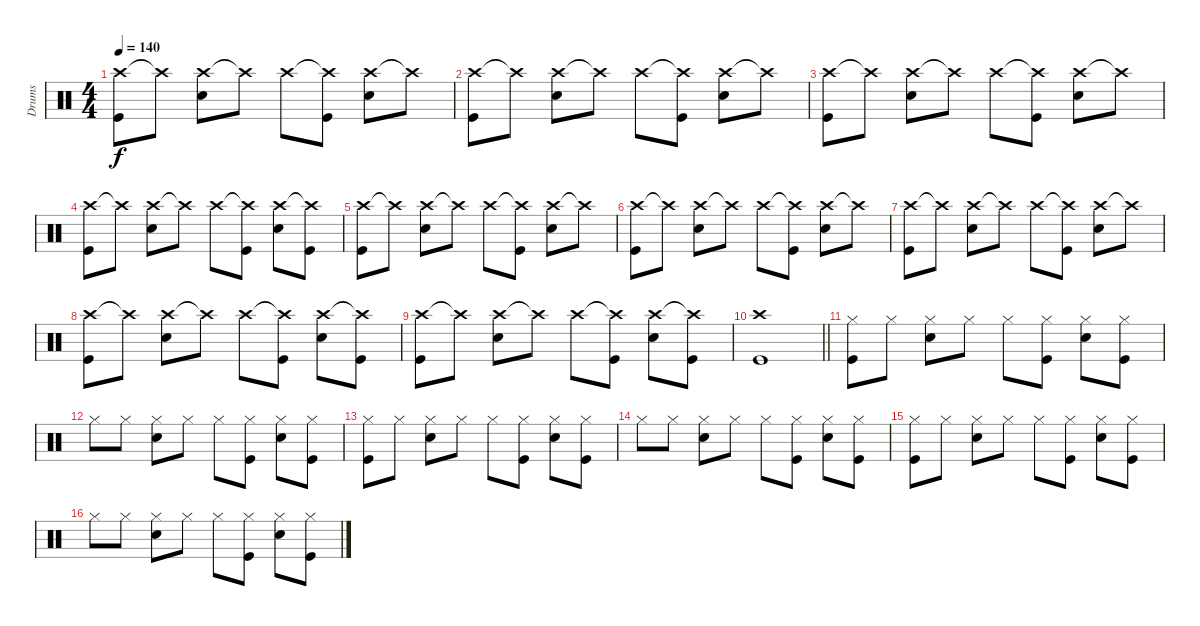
\track ("Drums" "Drums") {instrument percussion}
\staff {score}
\articulation defaults
\ts (4 4)
\tempo 140
\clef neutral
\ks c
("Crash high (hit)" "Kick (hit)").8{dy f} "Crash high (hit)"{t}.8 ("Crash high (hit)" "Snare (hit) 2").8 "Crash high (hit)"{t}.8 "Crash high (hit)".8 ("Crash high (hit)"{t} "Kick (hit)").8 ("Crash high (hit)" "Snare (hit) 2").8 "Crash high (hit)"{t}.8 |
("Crash high (hit)" "Kick (hit)").8 "Crash high (hit)"{t}.8 ("Crash high (hit)" "Snare (hit) 2").8 "Crash high (hit)"{t}.8 "Crash high (hit)".8 ("Crash high (hit)"{t} "Kick (hit)").8 ("Crash high (hit)" "Snare (hit) 2").8 "Crash high (hit)"{t}.8 |
("Crash high (hit)" "Kick (hit)").8 "Crash high (hit)"{t}.8 ("Crash high (hit)" "Snare (hit) 2").8 "Crash high (hit)"{t}.8 "Crash high (hit)".8 ("Crash high (hit)"{t} "Kick (hit)").8 ("Crash high (hit)" "Snare (hit) 2").8 "Crash high (hit)"{t}.8 |
("Crash high (hit)" "Kick (hit)").8 "Crash high (hit)"{t}.8 ("Crash high (hit)" "Snare (hit) 2").8 "Crash high (hit)"{t}.8 "Crash high (hit)".8 ("Crash high (hit)"{t} "Kick (hit)").8 ("Crash high (hit)" "Snare (hit) 2").8 ("Crash high (hit)"{t} "Kick (hit)").8 |
("Crash high (hit)" "Kick (hit)").8 "Crash high (hit)"{t}.8 ("Crash high (hit)" "Snare (hit) 2").8 "Crash high (hit)"{t}.8 "Crash high (hit)".8 ("Crash high (hit)"{t} "Kick (hit)").8 ("Crash high (hit)" "Snare (hit) 2").8 "Crash high (hit)"{t}.8 |
("Crash high (hit)" "Kick (hit)").8 "Crash high (hit)"{t}.8 ("Crash high (hit)" "Snare (hit) 2").8 "Crash high (hit)"{t}.8 "Crash high (hit)".8 ("Crash high (hit)"{t} "Kick (hit)").8 ("Crash high (hit)" "Snare (hit) 2").8 "Crash high (hit)"{t}.8 |
("Crash high (hit)" "Kick (hit)").8 "Crash high (hit)"{t}.8 ("Crash high (hit)" "Snare (hit) 2").8 "Crash high (hit)"{t}.8 "Crash high (hit)".8 ("Crash high (hit)"{t} "Kick (hit)").8 ("Crash high (hit)" "Snare (hit) 2").8 "Crash high (hit)"{t}.8 |
("Crash high (hit)" "Kick (hit)").8 "Crash high (hit)"{t}.8 ("Crash high (hit)" "Snare (hit) 2").8 "Crash high (hit)"{t}.8 "Crash high (hit)".8 ("Crash high (hit)"{t} "Kick (hit)").8 ("Crash high (hit)" "Snare (hit) 2").8 ("Crash high (hit)"{t} "Kick (hit)").8 |
("Crash high (hit)" "Kick (hit)").8 "Crash high (hit)"{t}.8 ("Crash high (hit)" "Snare (hit) 2").8 "Crash high (hit)"{t}.8 "Crash high (hit)".8 ("Crash high (hit)"{t} "Kick (hit)").8 ("Crash high (hit)" "Snare (hit) 2").8 ("Crash high (hit)"{t} "Kick (hit)").8 |
\barLineRight lightlight
("Crash high (hit)" "Kick (hit)").1 |
("Hi-Hat (closed)" "Kick (hit)").8 "Hi-Hat (closed)".8 ("Hi-Hat (closed)" "Electric Snare (hit)").8 "Hi-Hat (closed)".8 "Hi-Hat (closed)".8 ("Hi-Hat (closed)" "Kick (hit)").8 ("Hi-Hat (closed)" "Electric Snare (hit)").8 ("Hi-Hat (closed)" "Kick (hit)").8 |
"Hi-Hat (closed)".8 "Hi-Hat (closed)".8 ("Hi-Hat (closed)" "Electric Snare (hit)").8 "Hi-Hat (closed)".8 "Hi-Hat (closed)".8 ("Hi-Hat (closed)" "Kick (hit)").8 ("Hi-Hat (closed)" "Electric Snare (hit)").8 ("Hi-Hat (closed)" "Kick (hit)").8 |
("Hi-Hat (closed)" "Kick (hit)").8 "Hi-Hat (closed)".8 ("Hi-Hat (closed)" "Electric Snare (hit)").8 "Hi-Hat (closed)".8 "Hi-Hat (closed)".8 ("Hi-Hat (closed)" "Kick (hit)").8 ("Hi-Hat (closed)" "Electric Snare (hit)").8 ("Hi-Hat (closed)" "Kick (hit)").8 |
"Hi-Hat (closed)".8 "Hi-Hat (closed)".8 ("Hi-Hat (closed)" "Electric Snare (hit)").8 "Hi-Hat (closed)".8 "Hi-Hat (closed)".8 ("Hi-Hat (closed)" "Kick (hit)").8 ("Hi-Hat (closed)" "Electric Snare (hit)").8 ("Hi-Hat (closed)" "Kick (hit)").8 |
("Hi-Hat (closed)" "Kick (hit)").8 "Hi-Hat (closed)".8 ("Hi-Hat (closed)" "Electric Snare (hit)").8 "Hi-Hat (closed)".8 "Hi-Hat (closed)".8 ("Hi-Hat (closed)" "Kick (hit)").8 ("Hi-Hat (closed)" "Electric Snare (hit)").8 ("Hi-Hat (closed)" "Kick (hit)").8 |
"Hi-Hat (closed)".8 "Hi-Hat (closed)".8 ("Hi-Hat (closed)" "Electric Snare (hit)").8 "Hi-Hat (closed)".8 "Hi-Hat (closed)".8 ("Hi-Hat (closed)" "Kick (hit)").8 ("Hi-Hat (closed)" "Electric Snare (hit)").8 ("Hi-Hat (closed)" "Kick (hit)").8
